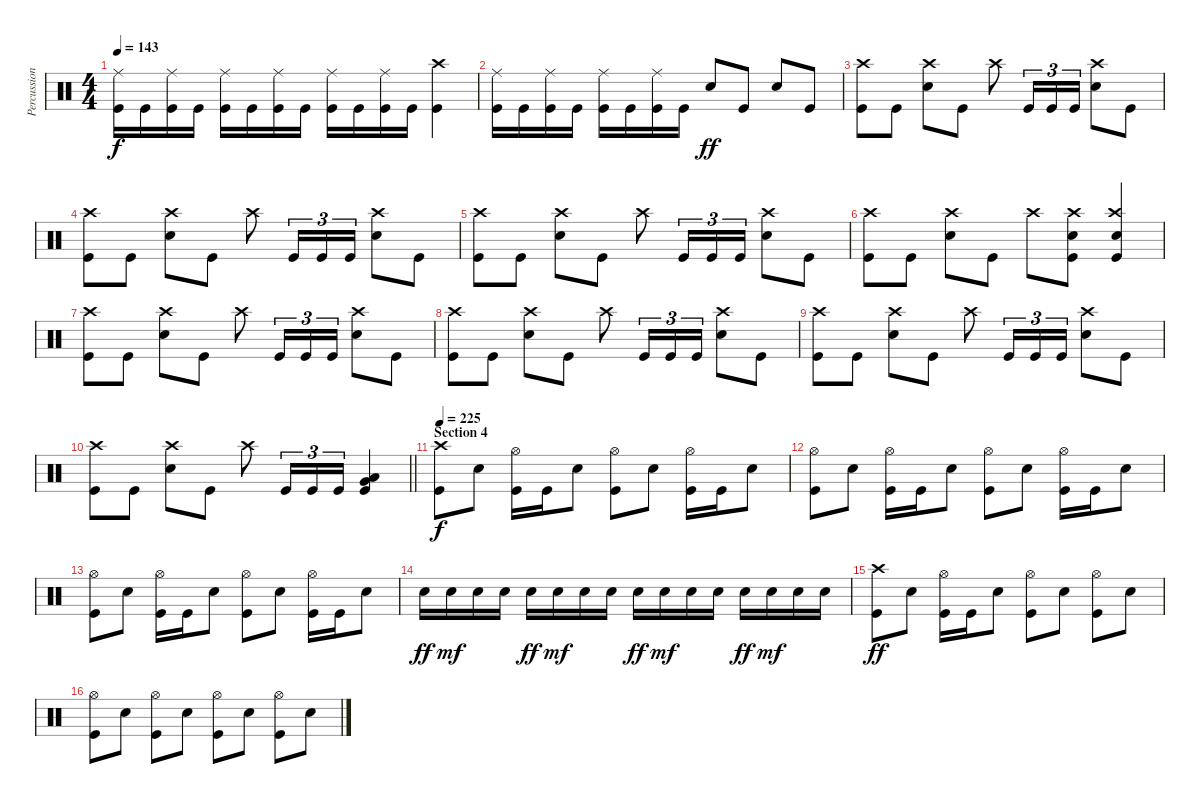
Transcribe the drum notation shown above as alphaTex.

\track ("Percussion" "Percussion") {instrument percussion}
\staff {score}
\articulation defaults
\ts (4 4)
\tempo 143
\clef neutral
\ks c
("Ride (middle)" "Kick (hit)").16{dy f} "Kick (hit)".16 ("Ride (middle)" "Kick (hit)").16 "Kick (hit)".16 ("Ride (middle)" "Kick (hit)").16 "Kick (hit)".16 ("Ride (middle)" "Kick (hit)").16 "Kick (hit)".16 ("Ride (middle)" "Kick (hit)").16 "Kick (hit)".16 ("Ride (middle)" "Kick (hit)").16 "Kick (hit)".16 ("Crash high (hit)" "Kick (hit)").4 |
("Ride (middle)" "Kick (hit)").16 "Kick (hit)".16 ("Ride (middle)" "Kick (hit)").16 "Kick (hit)".16 ("Ride (middle)" "Kick (hit)").16 "Kick (hit)".16 ("Ride (middle)" "Kick (hit)").16 "Kick (hit)".16 "Snare (hit) 2".8{dy ff} "Kick (hit)".8 "Snare (hit) 2".8 "Kick (hit)".8 |
("Crash high (hit)" "Kick (hit)").8 "Kick (hit)".8 ("Crash high (hit)" "Snare (hit) 2").8 "Kick (hit)".8 "Crash high (hit)".8 "Kick (hit)".16{tu (3 2)} "Kick (hit)".16{tu (3 2)} "Kick (hit)".16{tu (3 2)} ("Snare (hit) 2" "Crash high (hit)").8 "Kick (hit)".8 |
("Crash high (hit)" "Kick (hit)").8 "Kick (hit)".8 ("Crash high (hit)" "Snare (hit) 2").8 "Kick (hit)".8 "Crash high (hit)".8 "Kick (hit)".16{tu (3 2)} "Kick (hit)".16{tu (3 2)} "Kick (hit)".16{tu (3 2)} ("Snare (hit) 2" "Crash high (hit)").8 "Kick (hit)".8 |
("Crash high (hit)" "Kick (hit)").8 "Kick (hit)".8 ("Crash high (hit)" "Snare (hit) 2").8 "Kick (hit)".8 "Crash high (hit)".8 "Kick (hit)".16{tu (3 2)} "Kick (hit)".16{tu (3 2)} "Kick (hit)".16{tu (3 2)} ("Snare (hit) 2" "Crash high (hit)").8 "Kick (hit)".8 |
("Crash high (hit)" "Kick (hit)").8 "Kick (hit)".8 ("Crash high (hit)" "Snare (hit) 2").8 "Kick (hit)".8 "Crash high (hit)".8 ("Crash high (hit)" "Kick (hit)" "Snare (hit) 2").8 ("Snare (hit) 2" "Kick (hit)" "Crash high (hit)").4 |
("Crash high (hit)" "Kick (hit)").8 "Kick (hit)".8 ("Crash high (hit)" "Snare (hit) 2").8 "Kick (hit)".8 "Crash high (hit)".8 "Kick (hit)".16{tu (3 2)} "Kick (hit)".16{tu (3 2)} "Kick (hit)".16{tu (3 2)} ("Snare (hit) 2" "Crash high (hit)").8 "Kick (hit)".8 |
("Crash high (hit)" "Kick (hit)").8 "Kick (hit)".8 ("Crash high (hit)" "Snare (hit) 2").8 "Kick (hit)".8 "Crash high (hit)".8 "Kick (hit)".16{tu (3 2)} "Kick (hit)".16{tu (3 2)} "Kick (hit)".16{tu (3 2)} ("Snare (hit) 2" "Crash high (hit)").8 "Kick (hit)".8 |
("Crash high (hit)" "Kick (hit)").8 "Kick (hit)".8 ("Crash high (hit)" "Snare (hit) 2").8 "Kick (hit)".8 "Crash high (hit)".8 "Kick (hit)".16{tu (3 2)} "Kick (hit)".16{tu (3 2)} "Kick (hit)".16{tu (3 2)} ("Snare (hit) 2" "Crash high (hit)").8 "Kick (hit)".8 |
\barLineRight lightlight
("Crash high (hit)" "Kick (hit)").8 "Kick (hit)".8 ("Crash high (hit)" "Snare (hit) 2").8 "Kick (hit)".8 "Crash high (hit)".8 "Kick (hit)".16{tu (3 2)} "Kick (hit)".16{tu (3 2)} "Kick (hit)".16{tu (3 2)} ("Kick (hit)" "Very Low Tom (hit)" "Low Floor Tom (hit)").4 |
\section ("" "Section 4")
\tempo 225
("Crash high (hit)" "Kick (hit)").8{dy f} "Snare (hit) 2".8 ("Hi-Hat (open)" "Kick (hit)").16 "Kick (hit)".16 "Snare (hit) 2".8 ("Hi-Hat (open)" "Kick (hit)").8 "Snare (hit) 2".8 ("Hi-Hat (open)" "Kick (hit)").16 "Kick (hit)".16 "Snare (hit) 2".8 |
("Hi-Hat (open)" "Kick (hit)").8 "Snare (hit) 2".8 ("Hi-Hat (open)" "Kick (hit)").16 "Kick (hit)".16 "Snare (hit) 2".8 ("Hi-Hat (open)" "Kick (hit)").8 "Snare (hit) 2".8 ("Hi-Hat (open)" "Kick (hit)").16 "Kick (hit)".16 "Snare (hit) 2".8 |
("Hi-Hat (open)" "Kick (hit)").8 "Snare (hit) 2".8 ("Hi-Hat (open)" "Kick (hit)").16 "Kick (hit)".16 "Snare (hit) 2".8 ("Hi-Hat (open)" "Kick (hit)").8 "Snare (hit) 2".8 ("Hi-Hat (open)" "Kick (hit)").16 "Kick (hit)".16 "Snare (hit) 2".8 |
"Snare (hit) 2".16{dy ff} "Snare (hit) 2".16{dy mf} "Snare (hit) 2".16 "Snare (hit) 2".16 "Snare (hit) 2".16{dy ff} "Snare (hit) 2".16{dy mf} "Snare (hit) 2".16 "Snare (hit) 2".16 "Snare (hit) 2".16{dy ff} "Snare (hit) 2".16{dy mf} "Snare (hit) 2".16 "Snare (hit) 2".16 "Snare (hit) 2".16{dy ff} "Snare (hit) 2".16{dy mf} "Snare (hit) 2".16 "Snare (hit) 2".16 |
("Crash high (hit)" "Kick (hit)").8{dy ff} "Snare (hit) 2".8 ("Hi-Hat (open)" "Kick (hit)").16 "Kick (hit)".16 "Snare (hit) 2".8 ("Hi-Hat (open)" "Kick (hit)").8 "Snare (hit) 2".8 ("Hi-Hat (open)" "Kick (hit)").8 "Snare (hit) 2".8 |
("Hi-Hat (open)" "Kick (hit)").8 "Snare (hit) 2".8 ("Hi-Hat (open)" "Kick (hit)").8 "Snare (hit) 2".8 ("Hi-Hat (open)" "Kick (hit)").8 "Snare (hit) 2".8 ("Hi-Hat (open)" "Kick (hit)").8 "Snare (hit) 2".8
